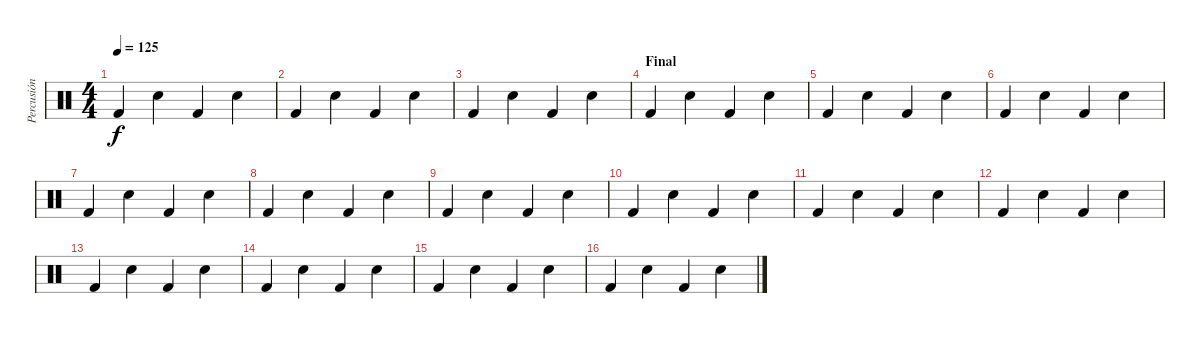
\track ("Percusión" "Percusión") {instrument percussion}
\staff {score}
\articulation defaults
\ts (4 4)
\tempo 125
\clef neutral
\ks c "Kick (hit) 2".4{dy f} "Electric Snare (hit)".4 "Kick (hit) 2".4 "Electric Snare (hit)".4
|
"Kick (hit) 2".4 "Electric Snare (hit)".4 "Kick (hit) 2".4 "Electric Snare (hit)".4 |
"Kick (hit) 2".4 "Electric Snare (hit)".4 "Kick (hit) 2".4 "Electric Snare (hit)".4 |
\section ("" "Final")
"Kick (hit) 2".4 "Electric Snare (hit)".4 "Kick (hit) 2".4 "Electric Snare (hit)".4 |
"Kick (hit) 2".4 "Electric Snare (hit)".4 "Kick (hit) 2".4 "Electric Snare (hit)".4 |
"Kick (hit) 2".4 "Electric Snare (hit)".4 "Kick (hit) 2".4 "Electric Snare (hit)".4 |
"Kick (hit) 2".4 "Electric Snare (hit)".4 "Kick (hit) 2".4 "Electric Snare (hit)".4 |
"Kick (hit) 2".4 "Electric Snare (hit)".4 "Kick (hit) 2".4 "Electric Snare (hit)".4 |
"Kick (hit) 2".4 "Electric Snare (hit)".4 "Kick (hit) 2".4 "Electric Snare (hit)".4 |
"Kick (hit) 2".4 "Electric Snare (hit)".4 "Kick (hit) 2".4 "Electric Snare (hit)".4 |
"Kick (hit) 2".4 "Electric Snare (hit)".4 "Kick (hit) 2".4 "Electric Snare (hit)".4 |
"Kick (hit) 2".4 "Electric Snare (hit)".4 "Kick (hit) 2".4 "Electric Snare (hit)".4 |
"Kick (hit) 2".4 "Electric Snare (hit)".4 "Kick (hit) 2".4 "Electric Snare (hit)".4 |
"Kick (hit) 2".4 "Electric Snare (hit)".4 "Kick (hit) 2".4 "Electric Snare (hit)".4 |
"Kick (hit) 2".4 "Electric Snare (hit)".4 "Kick (hit) 2".4 "Electric Snare (hit)".4 |
"Kick (hit) 2".4 "Electric Snare (hit)".4 "Kick (hit) 2".4 "Electric Snare (hit)".4
